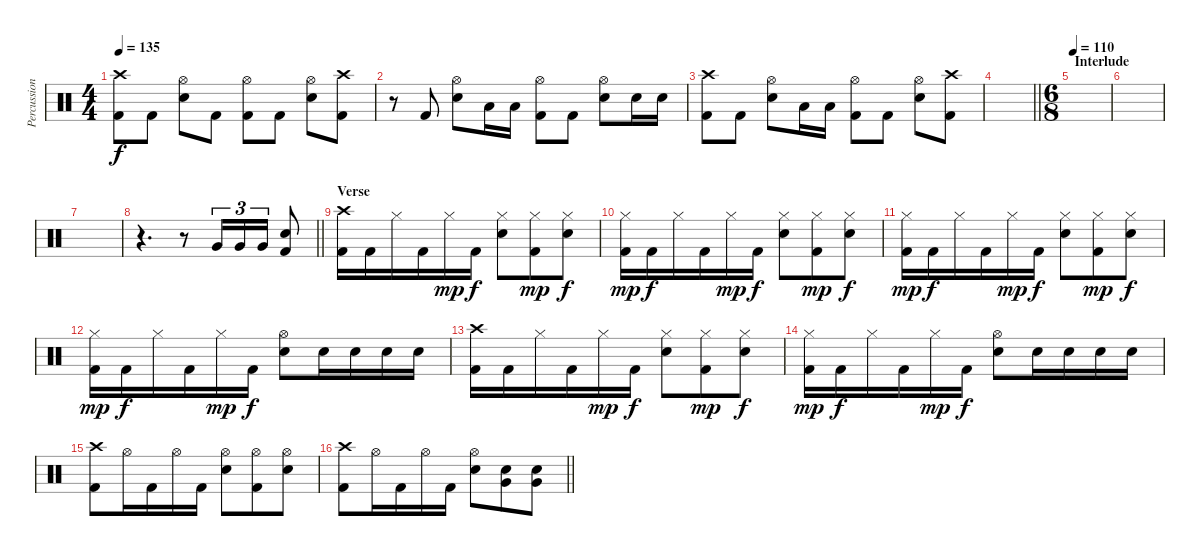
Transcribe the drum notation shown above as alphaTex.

\track ("Percussion" "Percussion") {instrument percussion}
\staff {score}
\articulation defaults
\ts (4 4)
\tempo 135
\clef neutral
\ks c
("Kick (hit) 2" "Crash high (hit)").8{dy f} "Kick (hit) 2".8 ("Snare (hit) 2" "Hi-Hat (open)").8 "Kick (hit) 2".8 ("Kick (hit) 2" "Hi-Hat (open)").8 "Kick (hit) 2".8 ("Snare (hit) 2" "Hi-Hat (open)").8 ("Kick (hit) 2" "Crash high (hit)").8 |
r.8 "Kick (hit) 2".8 ("Snare (hit) 2" "Hi-Hat (open)").8 "Low Floor Tom (hit)".16 "Low Floor Tom (hit)".16 ("Kick (hit) 2" "Hi-Hat (open)").8 "Kick (hit) 2".8 ("Snare (hit) 2" "Hi-Hat (open)").8 "Snare (hit) 2".16 "Snare (hit) 2".16 |
("Kick (hit) 2" "Crash high (hit)").8 "Kick (hit) 2".8 ("Snare (hit) 2" "Hi-Hat (open)").8 "Low Floor Tom (hit)".16 "Low Floor Tom (hit)".16 ("Kick (hit) 2" "Hi-Hat (open)").8 "Kick (hit) 2".8 ("Snare (hit) 2" "Hi-Hat (open)").8 ("Kick (hit) 2" "Crash high (hit)").8 |
\barLineRight lightlight
|
\ts (6 8)
\section ("" "Interlude")
\tempo 110
|
|
|
\barLineRight lightlight
r.4{d} r.8 "Very Low Tom (hit)".16{tu (3 2)} "Very Low Tom (hit)".16{tu (3 2)} "Very Low Tom (hit)".16{tu (3 2)} ("Snare (hit) 2" "Kick (hit) 2").8 |
\section ("" "Verse")
("Kick (hit) 2" "Crash high (hit)").16 "Kick (hit) 2".16 "Hi-Hat (closed)".16 "Kick (hit) 2".16 "Hi-Hat (closed)".16{dy mp} "Kick (hit) 2".16{dy f} ("Snare (hit) 2" "Hi-Hat (closed)").8 ("Kick (hit) 2" "Hi-Hat (closed)").8{dy mp} ("Snare (hit) 2" "Hi-Hat (closed)").8{dy f} |
("Kick (hit) 2" "Hi-Hat (closed)").16{dy mp} "Kick (hit) 2".16{dy f} "Hi-Hat (closed)".16 "Kick (hit) 2".16 "Hi-Hat (closed)".16{dy mp} "Kick (hit) 2".16{dy f} ("Snare (hit) 2" "Hi-Hat (closed)").8 ("Kick (hit) 2" "Hi-Hat (closed)").8{dy mp} ("Snare (hit) 2" "Hi-Hat (closed)").8{dy f} |
("Kick (hit) 2" "Hi-Hat (closed)").16{dy mp} "Kick (hit) 2".16{dy f} "Hi-Hat (closed)".16 "Kick (hit) 2".16 "Hi-Hat (closed)".16{dy mp} "Kick (hit) 2".16{dy f} ("Snare (hit) 2" "Hi-Hat (closed)").8 ("Kick (hit) 2" "Hi-Hat (closed)").8{dy mp} ("Snare (hit) 2" "Hi-Hat (closed)").8{dy f} |
("Kick (hit) 2" "Hi-Hat (closed)").16{dy mp} "Kick (hit) 2".16{dy f} "Hi-Hat (closed)".16 "Kick (hit) 2".16 "Hi-Hat (closed)".16{dy mp} "Kick (hit) 2".16{dy f} ("Snare (hit) 2" "Hi-Hat (open)").8 "Snare (hit) 2".16 "Snare (hit) 2".16 "Snare (hit) 2".16 "Snare (hit) 2".16 |
("Kick (hit) 2" "Crash high (hit)").16 "Kick (hit) 2".16 "Hi-Hat (closed)".16 "Kick (hit) 2".16 "Hi-Hat (closed)".16{dy mp} "Kick (hit) 2".16{dy f} ("Snare (hit) 2" "Hi-Hat (closed)").8 ("Kick (hit) 2" "Hi-Hat (closed)").8{dy mp} ("Snare (hit) 2" "Hi-Hat (closed)").8{dy f} |
("Kick (hit) 2" "Hi-Hat (closed)").16{dy mp} "Kick (hit) 2".16{dy f} "Hi-Hat (closed)".16 "Kick (hit) 2".16 "Hi-Hat (closed)".16{dy mp} "Kick (hit) 2".16{dy f} ("Snare (hit) 2" "Hi-Hat (open)").8 "Snare (hit) 2".16 "Snare (hit) 2".16 "Snare (hit) 2".16 "Snare (hit) 2".16 |
("Kick (hit) 2" "Crash high (hit)").8 "Hi-Hat (open)".16 "Kick (hit) 2".16 "Hi-Hat (open)".16 "Kick (hit) 2".16 ("Snare (hit) 2" "Hi-Hat (open)").8 ("Kick (hit) 2" "Hi-Hat (open)").8 ("Snare (hit) 2" "Hi-Hat (open)").8 |
\barLineRight lightlight
("Kick (hit) 2" "Crash high (hit)").8 "Hi-Hat (open)".16 "Kick (hit) 2".16 "Hi-Hat (open)".16 "Kick (hit) 2".16 ("Snare (hit) 2" "Hi-Hat (open)").8 ("Snare (hit) 2" "Very Low Tom (hit)").8 ("Snare (hit) 2" "Very Low Tom (hit)").8
